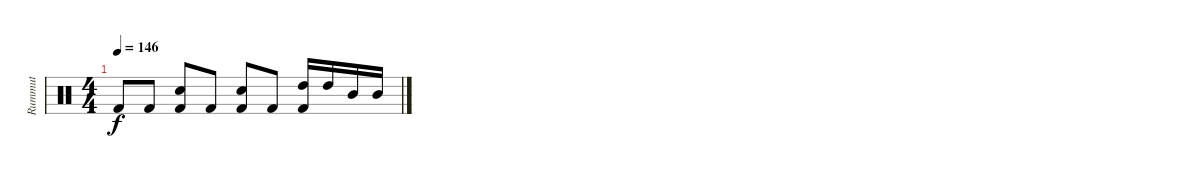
\track ("Rummut" "Rummut") {instrument percussion}
\staff {score}
\articulation defaults
\ts (4 4)
\tempo 146
\clef neutral
\ks c "Kick (hit) 2".8{dy f} "Kick (hit) 2".8
("Electric Snare (hit)" "Kick (hit) 2").8 "Kick (hit) 2".8 ("Electric Snare (hit)" "Kick (hit) 2").8 "Kick (hit) 2".8 ("High Tom (hit)" "Kick (hit) 2").16 "High Tom (hit)".16 "Mid Tom (hit)".16 "Mid Tom (hit)".16
